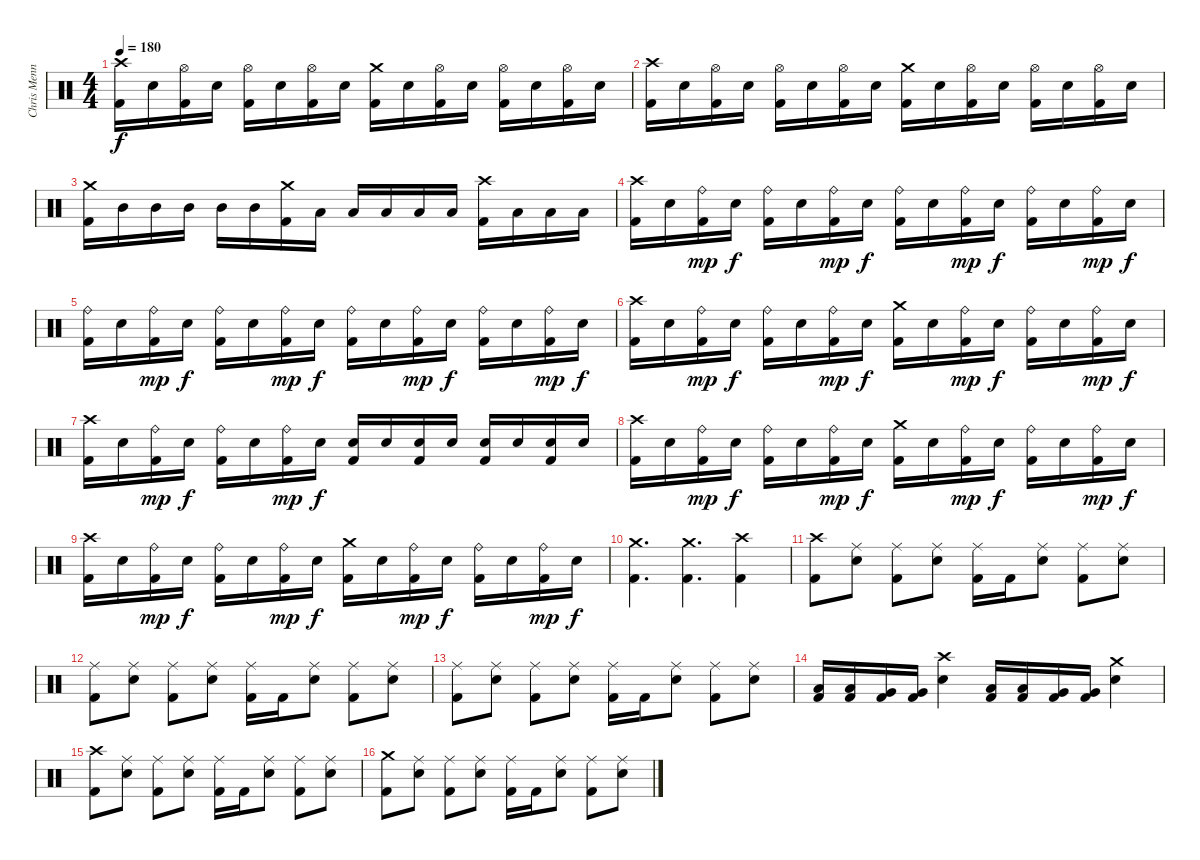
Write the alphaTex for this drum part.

\track ("Chris Menning" "Chris Menn") {instrument percussion}
\staff {score}
\articulation defaults
\ts (4 4)
\tempo 180
\clef neutral
\ks c
("Crash high (hit)" "Kick (hit) 2").16{dy f} "Electric Snare (hit)".16 ("Hi-Hat (open)" "Kick (hit) 2").16 "Electric Snare (hit)".16 ("Hi-Hat (open)" "Kick (hit) 2").16 "Electric Snare (hit)".16 ("Hi-Hat (open)" "Kick (hit) 2").16 "Electric Snare (hit)".16 ("Crash medium (hit)" "Kick (hit) 2").16 "Electric Snare (hit)".16 ("Hi-Hat (open)" "Kick (hit) 2").16 "Electric Snare (hit)".16 ("Hi-Hat (open)" "Kick (hit) 2").16 "Electric Snare (hit)".16 ("Hi-Hat (open)" "Kick (hit) 2").16 "Electric Snare (hit)".16 |
("Crash high (hit)" "Kick (hit) 2").16 "Electric Snare (hit)".16 ("Hi-Hat (open)" "Kick (hit) 2").16 "Electric Snare (hit)".16 ("Hi-Hat (open)" "Kick (hit) 2").16 "Electric Snare (hit)".16 ("Hi-Hat (open)" "Kick (hit) 2").16 "Electric Snare (hit)".16 ("Crash medium (hit)" "Kick (hit) 2").16 "Electric Snare (hit)".16 ("Hi-Hat (open)" "Kick (hit) 2").16 "Electric Snare (hit)".16 ("Hi-Hat (open)" "Kick (hit) 2").16 "Electric Snare (hit)".16 ("Hi-Hat (open)" "Kick (hit) 2").16 "Electric Snare (hit)".16 |
("Crash medium (hit)" "Kick (hit) 2").16 "Mid Tom (hit)".16 "Mid Tom (hit)".16 "Mid Tom (hit)".16 "Mid Tom (hit)".16 "Mid Tom (hit)".16 ("Crash medium (hit)" "Kick (hit) 2").16 "Low Tom (hit)".16 "Low Tom (hit)".16 "Low Tom (hit)".16 "Low Tom (hit)".16 "Low Tom (hit)".16 ("Crash high (hit)" "Kick (hit) 2").16 "Low Tom (hit)".16 "Low Tom (hit)".16 "Low Tom (hit)".16 |
("Crash high (hit)" "Kick (hit) 2").16 "Electric Snare (hit)".16 ("Ride (bell)" "Kick (hit) 2").16{dy mp} "Electric Snare (hit)".16{dy f} ("Ride (bell)" "Kick (hit) 2").16 "Electric Snare (hit)".16 ("Ride (bell)" "Kick (hit) 2").16{dy mp} "Electric Snare (hit)".16{dy f} ("Ride (bell)" "Kick (hit) 2").16 "Electric Snare (hit)".16 ("Ride (bell)" "Kick (hit) 2").16{dy mp} "Electric Snare (hit)".16{dy f} ("Ride (bell)" "Kick (hit) 2").16 "Electric Snare (hit)".16 ("Ride (bell)" "Kick (hit) 2").16{dy mp} "Electric Snare (hit)".16{dy f} |
("Ride (bell)" "Kick (hit) 2").16 "Electric Snare (hit)".16 ("Ride (bell)" "Kick (hit) 2").16{dy mp} "Electric Snare (hit)".16{dy f} ("Ride (bell)" "Kick (hit) 2").16 "Electric Snare (hit)".16 ("Ride (bell)" "Kick (hit) 2").16{dy mp} "Electric Snare (hit)".16{dy f} ("Ride (bell)" "Kick (hit) 2").16 "Electric Snare (hit)".16 ("Ride (bell)" "Kick (hit) 2").16{dy mp} "Electric Snare (hit)".16{dy f} ("Ride (bell)" "Kick (hit) 2").16 "Electric Snare (hit)".16 ("Ride (bell)" "Kick (hit) 2").16{dy mp} "Electric Snare (hit)".16{dy f} |
("Crash high (hit)" "Kick (hit) 2").16 "Electric Snare (hit)".16 ("Ride (bell)" "Kick (hit) 2").16{dy mp} "Electric Snare (hit)".16{dy f} ("Ride (bell)" "Kick (hit) 2").16 "Electric Snare (hit)".16 ("Ride (bell)" "Kick (hit) 2").16{dy mp} "Electric Snare (hit)".16{dy f} ("Crash medium (hit)" "Kick (hit) 2").16 "Electric Snare (hit)".16 ("Ride (bell)" "Kick (hit) 2").16{dy mp} "Electric Snare (hit)".16{dy f} ("Ride (bell)" "Kick (hit) 2").16 "Electric Snare (hit)".16 ("Ride (bell)" "Kick (hit) 2").16{dy mp} "Electric Snare (hit)".16{dy f} |
("Crash high (hit)" "Kick (hit) 2").16 "Electric Snare (hit)".16 ("Ride (bell)" "Kick (hit) 2").16{dy mp} "Electric Snare (hit)".16{dy f} ("Ride (bell)" "Kick (hit) 2").16 "Electric Snare (hit)".16 ("Ride (bell)" "Kick (hit) 2").16{dy mp} "Electric Snare (hit)".16{dy f} ("Electric Snare (hit)" "Kick (hit) 2").16 "Electric Snare (hit)".16 ("Electric Snare (hit)" "Kick (hit) 2").16 "Electric Snare (hit)".16 ("Electric Snare (hit)" "Kick (hit) 2").16 "Electric Snare (hit)".16 ("Electric Snare (hit)" "Kick (hit) 2").16 "Electric Snare (hit)".16 |
("Crash high (hit)" "Kick (hit) 2").16 "Electric Snare (hit)".16 ("Ride (bell)" "Kick (hit) 2").16{dy mp} "Electric Snare (hit)".16{dy f} ("Ride (bell)" "Kick (hit) 2").16 "Electric Snare (hit)".16 ("Ride (bell)" "Kick (hit) 2").16{dy mp} "Electric Snare (hit)".16{dy f} ("Crash medium (hit)" "Kick (hit) 2").16 "Electric Snare (hit)".16 ("Ride (bell)" "Kick (hit) 2").16{dy mp} "Electric Snare (hit)".16{dy f} ("Ride (bell)" "Kick (hit) 2").16 "Electric Snare (hit)".16 ("Ride (bell)" "Kick (hit) 2").16{dy mp} "Electric Snare (hit)".16{dy f} |
("Crash high (hit)" "Kick (hit) 2").16 "Electric Snare (hit)".16 ("Ride (bell)" "Kick (hit) 2").16{dy mp} "Electric Snare (hit)".16{dy f} ("Ride (bell)" "Kick (hit) 2").16 "Electric Snare (hit)".16 ("Ride (bell)" "Kick (hit) 2").16{dy mp} "Electric Snare (hit)".16{dy f} ("Crash medium (hit)" "Kick (hit) 2").16 "Electric Snare (hit)".16 ("Ride (bell)" "Kick (hit) 2").16{dy mp} "Electric Snare (hit)".16{dy f} ("Ride (bell)" "Kick (hit) 2").16 "Electric Snare (hit)".16 ("Ride (bell)" "Kick (hit) 2").16{dy mp} "Electric Snare (hit)".16{dy f} |
("Crash medium (hit)" "Kick (hit) 2").4{d} ("Crash medium (hit)" "Kick (hit) 2").4{d} ("Crash high (hit)" "Kick (hit) 2").4 |
("Crash high (hit)" "Kick (hit) 2").8 ("Ride (middle)" "Electric Snare (hit)").8 ("Ride (middle)" "Kick (hit) 2").8 ("Ride (middle)" "Electric Snare (hit)").8 ("Ride (middle)" "Kick (hit) 2").16 "Kick (hit) 2".16 ("Ride (middle)" "Electric Snare (hit)").8 ("Ride (middle)" "Kick (hit) 2").8 ("Ride (middle)" "Electric Snare (hit)").8 |
("Ride (middle)" "Kick (hit) 2").8 ("Ride (middle)" "Electric Snare (hit)").8 ("Ride (middle)" "Kick (hit) 2").8 ("Ride (middle)" "Electric Snare (hit)").8 ("Ride (middle)" "Kick (hit) 2").16 "Kick (hit) 2".16 ("Ride (middle)" "Electric Snare (hit)").8 ("Ride (middle)" "Kick (hit) 2").8 ("Ride (middle)" "Electric Snare (hit)").8 |
("Ride (middle)" "Kick (hit) 2").8 ("Ride (middle)" "Electric Snare (hit)").8 ("Ride (middle)" "Kick (hit) 2").8 ("Ride (middle)" "Electric Snare (hit)").8 ("Ride (middle)" "Kick (hit) 2").16 "Kick (hit) 2".16 ("Ride (middle)" "Electric Snare (hit)").8 ("Ride (middle)" "Kick (hit) 2").8 ("Ride (middle)" "Electric Snare (hit)").8 |
("Low Tom (hit)" "Kick (hit) 2").16 ("Low Tom (hit)" "Kick (hit) 2").16 ("Very Low Tom (hit)" "Kick (hit) 2").16 ("Very Low Tom (hit)" "Kick (hit) 2").16 ("Crash high (hit)" "Electric Snare (hit)").4 ("Low Tom (hit)" "Kick (hit) 2").16 ("Low Tom (hit)" "Kick (hit) 2").16 ("Very Low Tom (hit)" "Kick (hit) 2").16 ("Very Low Tom (hit)" "Kick (hit) 2").16 ("Crash medium (hit)" "Electric Snare (hit)").4 |
("Crash high (hit)" "Kick (hit) 2").8 ("Ride (middle)" "Electric Snare (hit)").8 ("Ride (middle)" "Kick (hit) 2").8 ("Ride (middle)" "Electric Snare (hit)").8 ("Ride (middle)" "Kick (hit) 2").16 "Kick (hit) 2".16 ("Ride (middle)" "Electric Snare (hit)").8 ("Ride (middle)" "Kick (hit) 2").8 ("Ride (middle)" "Electric Snare (hit)").8 |
("Crash medium (hit)" "Kick (hit) 2").8 ("Ride (middle)" "Electric Snare (hit)").8 ("Ride (middle)" "Kick (hit) 2").8 ("Ride (middle)" "Electric Snare (hit)").8 ("Ride (middle)" "Kick (hit) 2").16 "Kick (hit) 2".16 ("Ride (middle)" "Electric Snare (hit)").8 ("Ride (middle)" "Kick (hit) 2").8 ("Ride (middle)" "Electric Snare (hit)").8
